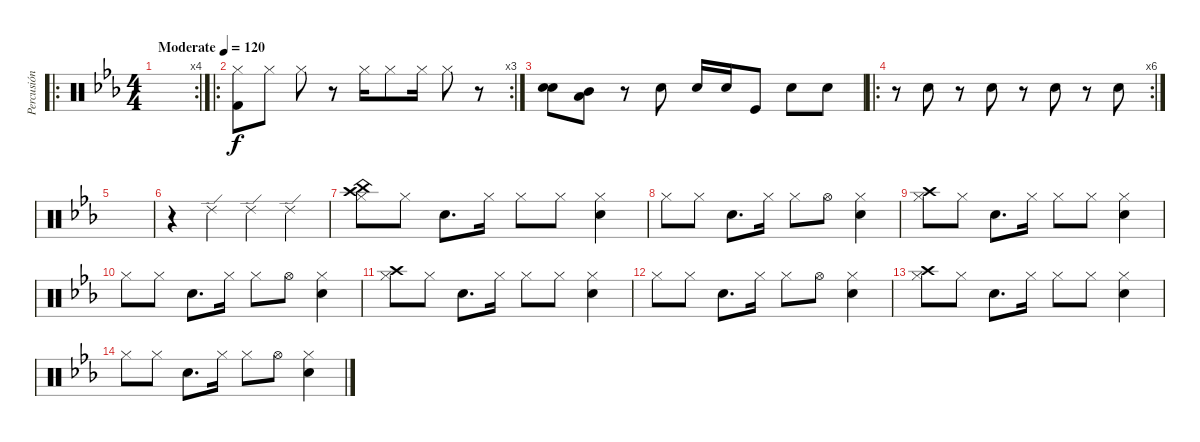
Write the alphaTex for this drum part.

\track ("Percusión" "Percusión") {instrument percussion}
\staff {score}
\articulation defaults
\ro
\rc 4
\ts (4 4)
\tempo (120 "Moderate")
\clef neutral
\ks eb
|
\ro
\rc 3
("Hi-Hat (closed)" "Kick (hit) 2").8 "Hi-Hat (closed)".8 "Hi-Hat (closed)".8 r.8 "Hi-Hat (closed)".16 "Hi-Hat (closed)".8 "Hi-Hat (closed)".16 "Hi-Hat (closed)".8 r.8 |
("Snare (hit) 2" "Hand Clap (hit)").8 ("Mid Tom (hit)" "Low Floor Tom (hit)").8 r.8 "Electric Snare (hit)".8 "Electric Snare (hit)".16 "Electric Snare (hit)".16 "Kick (hit)".8 "Snare (hit) 2".8 "Electric Snare (hit)".8 |
\ro
\rc 6
r.8 "Snare (hit) 2".8 r.8 "Snare (hit) 2".8 r.8 "Snare (hit) 2".8 r.8 "Snare (hit) 2".8 |
|
r.4 "Ride (edge) 2".4{balance 16} "Ride (edge) 2".4{balance 0} "Ride (edge) 2".4{balance 16} |
("China (hit)" "Crash high (hit)" "Hi-Hat (closed)").8{balance 8} "Hi-Hat (closed)".8 "Snare (hit) 2".8{d} "Hi-Hat (closed)".16 "Hi-Hat (closed)".8 "Hi-Hat (closed)".8 ("Hi-Hat (closed)" "Snare (hit) 2").4 |
"Hi-Hat (closed)".8 "Hi-Hat (closed)".8 "Snare (hit) 2".8{d} "Hi-Hat (closed)".16 "Hi-Hat (closed)".8 "Hi-Hat (open)".8 ("Hi-Hat (closed)" "Snare (hit) 2").4 |
("Crash high (hit)" "Hi-Hat (closed)").8 "Hi-Hat (closed)".8 "Snare (hit) 2".8{d} "Hi-Hat (closed)".16 "Hi-Hat (closed)".8 "Hi-Hat (closed)".8 ("Hi-Hat (closed)" "Snare (hit) 2").4 |
"Hi-Hat (closed)".8 "Hi-Hat (closed)".8 "Snare (hit) 2".8{d} "Hi-Hat (closed)".16 "Hi-Hat (closed)".8 "Hi-Hat (open)".8 ("Hi-Hat (closed)" "Snare (hit) 2").4 |
("Crash high (hit)" "Hi-Hat (closed)").8 "Hi-Hat (closed)".8 "Snare (hit) 2".8{d} "Hi-Hat (closed)".16 "Hi-Hat (closed)".8 "Hi-Hat (closed)".8 ("Hi-Hat (closed)" "Snare (hit) 2").4 |
"Hi-Hat (closed)".8 "Hi-Hat (closed)".8 "Snare (hit) 2".8{d} "Hi-Hat (closed)".16 "Hi-Hat (closed)".8 "Hi-Hat (open)".8 ("Hi-Hat (closed)" "Snare (hit) 2").4 |
("Crash high (hit)" "Hi-Hat (closed)").8 "Hi-Hat (closed)".8 "Snare (hit) 2".8{d} "Hi-Hat (closed)".16 "Hi-Hat (closed)".8 "Hi-Hat (closed)".8 ("Hi-Hat (closed)" "Snare (hit) 2").4 |
"Hi-Hat (closed)".8 "Hi-Hat (closed)".8 "Snare (hit) 2".8{d} "Hi-Hat (closed)".16 "Hi-Hat (closed)".8 "Hi-Hat (open)".8 ("Hi-Hat (closed)" "Snare (hit) 2").4
